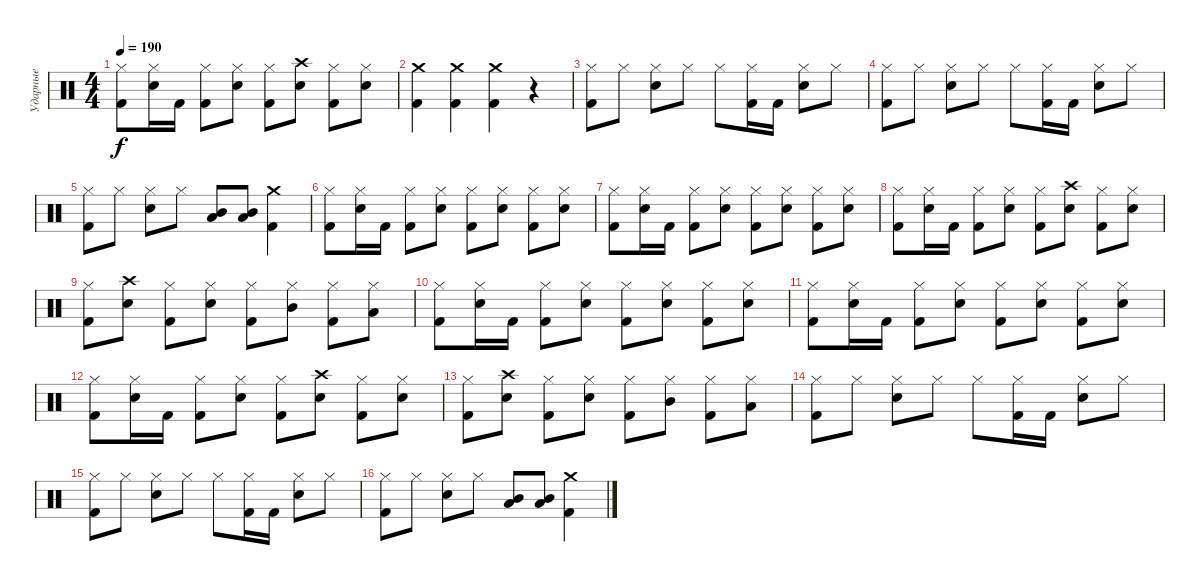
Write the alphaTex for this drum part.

\track ("Ударные" "Ударные") {instrument percussion}
\staff {score}
\articulation defaults
\ts (4 4)
\tempo 190
\clef neutral
\ks c
("Kick (hit) 2" "Hi-Hat (closed)").8{dy f} ("Snare (hit) 2" "Hi-Hat (closed)").16 "Kick (hit) 2".16 ("Kick (hit) 2" "Hi-Hat (closed)").8 ("Snare (hit) 2" "Hi-Hat (closed)").8 ("Kick (hit) 2" "Hi-Hat (closed)").8 ("Snare (hit) 2" "Crash high (hit)").8 ("Kick (hit) 2" "Hi-Hat (closed)").8 ("Snare (hit) 2" "Hi-Hat (closed)").8 |
("Crash medium (hit)" "Kick (hit) 2").4 ("Crash medium (hit)" "Kick (hit) 2").4 ("Crash medium (hit)" "Kick (hit) 2").4 r.4 |
("Kick (hit) 2" "Hi-Hat (closed)").8 "Hi-Hat (closed)".8 ("Snare (hit) 2" "Hi-Hat (closed)").8 "Hi-Hat (closed)".8 "Hi-Hat (closed)".8 ("Kick (hit) 2" "Hi-Hat (closed)").16 "Kick (hit) 2".16 ("Snare (hit) 2" "Hi-Hat (closed)").8 "Hi-Hat (closed)".8 |
("Kick (hit) 2" "Hi-Hat (closed)").8 "Hi-Hat (closed)".8 ("Snare (hit) 2" "Hi-Hat (closed)").8 "Hi-Hat (closed)".8 "Hi-Hat (closed)".8 ("Kick (hit) 2" "Hi-Hat (closed)").16 "Kick (hit) 2".16 ("Snare (hit) 2" "Hi-Hat (closed)").8 "Hi-Hat (closed)".8 |
("Kick (hit) 2" "Hi-Hat (closed)").8 "Hi-Hat (closed)".8 ("Snare (hit) 2" "Hi-Hat (closed)").8 "Hi-Hat (closed)".8 ("Mid Tom (hit)" "Low Tom (hit)").8{bd 240} ("Mid Tom (hit)" "Low Tom (hit)").8{bu 240} ("Crash medium (hit)" "Kick (hit) 2").4 |
("Kick (hit) 2" "Hi-Hat (closed)").8 ("Snare (hit) 2" "Hi-Hat (closed)").16 "Kick (hit) 2".16 ("Kick (hit) 2" "Hi-Hat (closed)").8 ("Snare (hit) 2" "Hi-Hat (closed)").8 ("Kick (hit) 2" "Hi-Hat (closed)").8 ("Snare (hit) 2" "Hi-Hat (closed)").8 ("Kick (hit) 2" "Hi-Hat (closed)").8 ("Snare (hit) 2" "Hi-Hat (closed)").8 |
("Kick (hit) 2" "Hi-Hat (closed)").8 ("Snare (hit) 2" "Hi-Hat (closed)").16 "Kick (hit) 2".16 ("Kick (hit) 2" "Hi-Hat (closed)").8 ("Snare (hit) 2" "Hi-Hat (closed)").8 ("Kick (hit) 2" "Hi-Hat (closed)").8 ("Snare (hit) 2" "Hi-Hat (closed)").8 ("Kick (hit) 2" "Hi-Hat (closed)").8 ("Snare (hit) 2" "Hi-Hat (closed)").8 |
("Kick (hit) 2" "Hi-Hat (closed)").8 ("Snare (hit) 2" "Hi-Hat (closed)").16 "Kick (hit) 2".16 ("Kick (hit) 2" "Hi-Hat (closed)").8 ("Snare (hit) 2" "Hi-Hat (closed)").8 ("Kick (hit) 2" "Hi-Hat (closed)").8 ("Snare (hit) 2" "Crash high (hit)").8 ("Kick (hit) 2" "Hi-Hat (closed)").8 ("Snare (hit) 2" "Hi-Hat (closed)").8 |
("Kick (hit) 2" "Hi-Hat (closed)").8 ("Snare (hit) 2" "Crash high (hit)").8 ("Kick (hit) 2" "Hi-Hat (closed)").8 ("Snare (hit) 2" "Hi-Hat (closed)").8 ("Kick (hit) 2" "Hi-Hat (closed)").8 ("Hi-Hat (closed)" "Mid Tom (hit)").8 ("Kick (hit) 2" "Hi-Hat (closed)").8 ("Hi-Hat (closed)" "Low Tom (hit)").8 |
("Kick (hit) 2" "Hi-Hat (closed)").8 ("Snare (hit) 2" "Hi-Hat (closed)").16 "Kick (hit) 2".16 ("Kick (hit) 2" "Hi-Hat (closed)").8 ("Snare (hit) 2" "Hi-Hat (closed)").8 ("Kick (hit) 2" "Hi-Hat (closed)").8 ("Snare (hit) 2" "Hi-Hat (closed)").8 ("Kick (hit) 2" "Hi-Hat (closed)").8 ("Snare (hit) 2" "Hi-Hat (closed)").8 |
("Kick (hit) 2" "Hi-Hat (closed)").8 ("Snare (hit) 2" "Hi-Hat (closed)").16 "Kick (hit) 2".16 ("Kick (hit) 2" "Hi-Hat (closed)").8 ("Snare (hit) 2" "Hi-Hat (closed)").8 ("Kick (hit) 2" "Hi-Hat (closed)").8 ("Snare (hit) 2" "Hi-Hat (closed)").8 ("Kick (hit) 2" "Hi-Hat (closed)").8 ("Snare (hit) 2" "Hi-Hat (closed)").8 |
("Kick (hit) 2" "Hi-Hat (closed)").8 ("Snare (hit) 2" "Hi-Hat (closed)").16 "Kick (hit) 2".16 ("Kick (hit) 2" "Hi-Hat (closed)").8 ("Snare (hit) 2" "Hi-Hat (closed)").8 ("Kick (hit) 2" "Hi-Hat (closed)").8 ("Snare (hit) 2" "Crash high (hit)").8 ("Kick (hit) 2" "Hi-Hat (closed)").8 ("Snare (hit) 2" "Hi-Hat (closed)").8 |
("Kick (hit) 2" "Hi-Hat (closed)").8 ("Snare (hit) 2" "Crash high (hit)").8 ("Kick (hit) 2" "Hi-Hat (closed)").8 ("Snare (hit) 2" "Hi-Hat (closed)").8 ("Kick (hit) 2" "Hi-Hat (closed)").8 ("Hi-Hat (closed)" "Mid Tom (hit)").8 ("Kick (hit) 2" "Hi-Hat (closed)").8 ("Hi-Hat (closed)" "Low Tom (hit)").8 |
("Kick (hit) 2" "Hi-Hat (closed)").8 "Hi-Hat (closed)".8 ("Snare (hit) 2" "Hi-Hat (closed)").8 "Hi-Hat (closed)".8 "Hi-Hat (closed)".8 ("Kick (hit) 2" "Hi-Hat (closed)").16 "Kick (hit) 2".16 ("Snare (hit) 2" "Hi-Hat (closed)").8 "Hi-Hat (closed)".8 |
("Kick (hit) 2" "Hi-Hat (closed)").8 "Hi-Hat (closed)".8 ("Snare (hit) 2" "Hi-Hat (closed)").8 "Hi-Hat (closed)".8 "Hi-Hat (closed)".8 ("Kick (hit) 2" "Hi-Hat (closed)").16 "Kick (hit) 2".16 ("Snare (hit) 2" "Hi-Hat (closed)").8 "Hi-Hat (closed)".8 |
("Kick (hit) 2" "Hi-Hat (closed)").8 "Hi-Hat (closed)".8 ("Snare (hit) 2" "Hi-Hat (closed)").8 "Hi-Hat (closed)".8 ("Mid Tom (hit)" "Low Tom (hit)").8{bd 240} ("Mid Tom (hit)" "Low Tom (hit)").8{bu 240} ("Crash medium (hit)" "Kick (hit) 2").4
